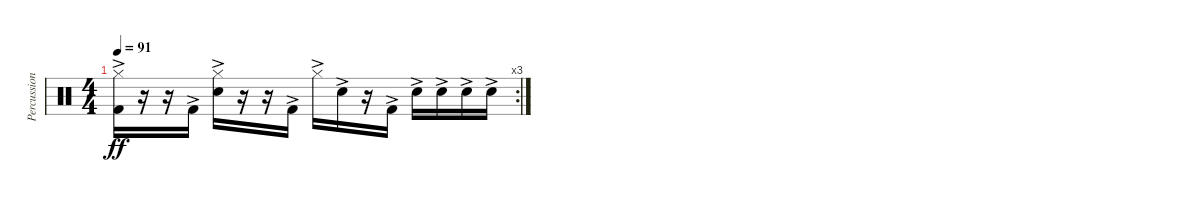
\track ("Percussion" "Percussion") {instrument percussion}
\staff {score}
\articulation defaults
\rc 3
\ts (4 4)
\tempo 91
\clef neutral
\ks c
("Hi-Hat (closed)"{ac} "Kick (hit) 2"{ac}).16{dy ff} r.16 r.16 "Kick (hit) 2"{ac}.16 ("Hi-Hat (closed)"{ac} "Snare (hit) 2"{ac}).16 r.16 r.16 "Kick (hit) 2"{ac}.16 "Hi-Hat (closed)"{ac}.16 "Snare (hit) 2"{ac}.16 r.16 "Kick (hit) 2"{ac}.16 "Snare (hit) 2"{ac}.16 "Snare (hit) 2"{ac}.16 "Snare (hit) 2"{ac}.16 "Snare (hit) 2"{ac}.16
